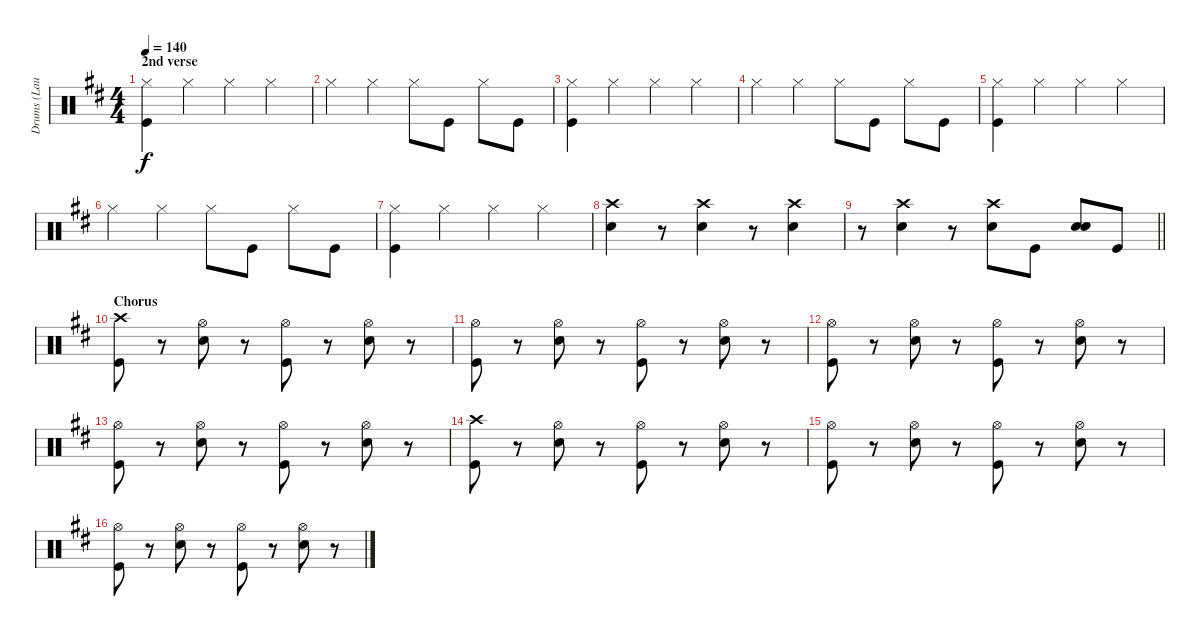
\track ("Drums (Laust Sonne)" "Drums (Lau") {instrument percussion}
\staff {score}
\articulation defaults
\ts (4 4)
\section ("" "2nd verse")
\tempo 140
\clef neutral
\ks d
("Hi-Hat (closed)" "Kick (hit)").4{dy f} "Hi-Hat (closed)".4 "Hi-Hat (closed)".4 "Hi-Hat (closed)".4 |
"Hi-Hat (closed)".4 "Hi-Hat (closed)".4 "Hi-Hat (closed)".8 "Kick (hit)".8 "Hi-Hat (closed)".8 "Kick (hit)".8 |
("Hi-Hat (closed)" "Kick (hit)").4 "Hi-Hat (closed)".4 "Hi-Hat (closed)".4 "Hi-Hat (closed)".4 |
"Hi-Hat (closed)".4 "Hi-Hat (closed)".4 "Hi-Hat (closed)".8 "Kick (hit)".8 "Hi-Hat (closed)".8 "Kick (hit)".8 |
("Hi-Hat (closed)" "Kick (hit)").4 "Hi-Hat (closed)".4 "Hi-Hat (closed)".4 "Hi-Hat (closed)".4 |
"Hi-Hat (closed)".4 "Hi-Hat (closed)".4 "Hi-Hat (closed)".8 "Kick (hit)".8 "Hi-Hat (closed)".8 "Kick (hit)".8 |
("Hi-Hat (closed)" "Kick (hit)").4 "Hi-Hat (closed)".4 "Hi-Hat (closed)".4 "Hi-Hat (closed)".4 |
("Crash high (hit)" "Snare (hit) 2").4 r.8 ("Crash high (hit)" "Snare (hit) 2").4 r.8 ("Crash high (hit)" "Snare (hit) 2").4 |
\barLineRight lightlight
r.8 ("Crash high (hit)" "Snare (hit) 2").4 r.8 ("Crash high (hit)" "Snare (hit) 2").8 "Kick (hit)".8 ("Snare (hit) 2" "Snare (hit) 2").8 "Kick (hit)".8 |
\section ("" "Chorus")
("Crash high (hit)" "Kick (hit)").8 r.8 ("Hi-Hat (open)" "Snare (hit) 2").8 r.8 ("Hi-Hat (open)" "Kick (hit)").8 r.8 ("Hi-Hat (open)" "Snare (hit) 2").8 r.8 |
("Hi-Hat (open)" "Kick (hit)").8 r.8 ("Hi-Hat (open)" "Snare (hit) 2").8 r.8 ("Hi-Hat (open)" "Kick (hit)").8 r.8 ("Hi-Hat (open)" "Snare (hit) 2").8 r.8 |
("Hi-Hat (open)" "Kick (hit)").8 r.8 ("Hi-Hat (open)" "Snare (hit) 2").8 r.8 ("Hi-Hat (open)" "Kick (hit)").8 r.8 ("Hi-Hat (open)" "Snare (hit) 2").8 r.8 |
("Hi-Hat (open)" "Kick (hit)").8 r.8 ("Hi-Hat (open)" "Snare (hit) 2").8 r.8 ("Hi-Hat (open)" "Kick (hit)").8 r.8 ("Hi-Hat (open)" "Snare (hit) 2").8 r.8 |
("Crash high (hit)" "Kick (hit)").8 r.8 ("Hi-Hat (open)" "Snare (hit) 2").8 r.8 ("Hi-Hat (open)" "Kick (hit)").8 r.8 ("Hi-Hat (open)" "Snare (hit) 2").8 r.8 |
("Hi-Hat (open)" "Kick (hit)").8 r.8 ("Hi-Hat (open)" "Snare (hit) 2").8 r.8 ("Hi-Hat (open)" "Kick (hit)").8 r.8 ("Hi-Hat (open)" "Snare (hit) 2").8 r.8 |
("Hi-Hat (open)" "Kick (hit)").8 r.8 ("Hi-Hat (open)" "Snare (hit) 2").8 r.8 ("Hi-Hat (open)" "Kick (hit)").8 r.8 ("Hi-Hat (open)" "Snare (hit) 2").8 r.8
